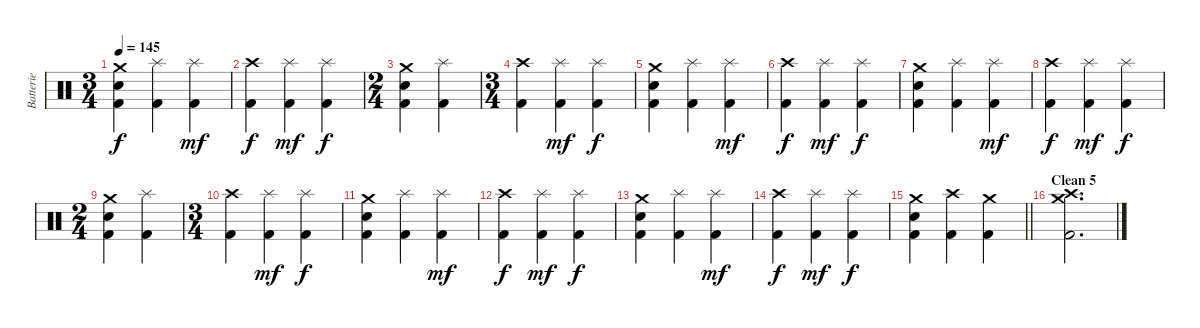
\track ("Batterie" "Batterie") {instrument percussion}
\staff {score}
\articulation defaults
\ts (3 4)
\tempo 145
\clef neutral
\ks c
("Crash medium (hit)" "Electric Snare (hit)" "Kick (hit) 2").4{dy f} ("Splash (hit)" "Kick (hit) 2").4 ("Splash (hit)" "Kick (hit) 2").4{dy mf} |
("Crash high (hit)" "Kick (hit) 2").4{dy f} ("Splash (hit)" "Kick (hit) 2").4{dy mf} ("Splash (hit)" "Kick (hit) 2").4{dy f} |
\ts (2 4)
("Crash medium (hit)" "Electric Snare (hit)" "Kick (hit) 2").4 ("Splash (hit)" "Kick (hit) 2").4 |
\ts (3 4)
("Crash high (hit)" "Kick (hit) 2").4 ("Splash (hit)" "Kick (hit) 2").4{dy mf} ("Splash (hit)" "Kick (hit) 2").4{dy f} |
("Crash medium (hit)" "Electric Snare (hit)" "Kick (hit) 2").4 ("Splash (hit)" "Kick (hit) 2").4 ("Splash (hit)" "Kick (hit) 2").4{dy mf} |
("Crash high (hit)" "Kick (hit) 2").4{dy f} ("Splash (hit)" "Kick (hit) 2").4{dy mf} ("Splash (hit)" "Kick (hit) 2").4{dy f} |
("Crash medium (hit)" "Electric Snare (hit)" "Kick (hit) 2").4 ("Splash (hit)" "Kick (hit) 2").4 ("Splash (hit)" "Kick (hit) 2").4{dy mf} |
("Crash high (hit)" "Kick (hit) 2").4{dy f} ("Splash (hit)" "Kick (hit) 2").4{dy mf} ("Splash (hit)" "Kick (hit) 2").4{dy f} |
\ts (2 4)
("Crash medium (hit)" "Electric Snare (hit)" "Kick (hit) 2").4 ("Splash (hit)" "Kick (hit) 2").4 |
\ts (3 4)
("Crash high (hit)" "Kick (hit) 2").4 ("Splash (hit)" "Kick (hit) 2").4{dy mf} ("Splash (hit)" "Kick (hit) 2").4{dy f} |
("Crash medium (hit)" "Electric Snare (hit)" "Kick (hit) 2").4 ("Splash (hit)" "Kick (hit) 2").4 ("Splash (hit)" "Kick (hit) 2").4{dy mf} |
("Crash high (hit)" "Kick (hit) 2").4{dy f} ("Splash (hit)" "Kick (hit) 2").4{dy mf} ("Splash (hit)" "Kick (hit) 2").4{dy f} |
("Crash medium (hit)" "Electric Snare (hit)" "Kick (hit) 2").4 ("Splash (hit)" "Kick (hit) 2").4 ("Splash (hit)" "Kick (hit) 2").4{dy mf} |
("Crash high (hit)" "Kick (hit) 2").4{dy f} ("Splash (hit)" "Kick (hit) 2").4{dy mf} ("Splash (hit)" "Kick (hit) 2").4{dy f} |
\barLineRight lightlight
("Crash medium (hit)" "Electric Snare (hit)" "Kick (hit) 2").4 ("Crash high (hit)" "Kick (hit) 2").4 ("Crash medium (hit)" "Kick (hit) 2").4 |
\section ("" "Clean 5")
("Crash high (hit)" "Crash medium (hit)" "Kick (hit) 2").2{d}
